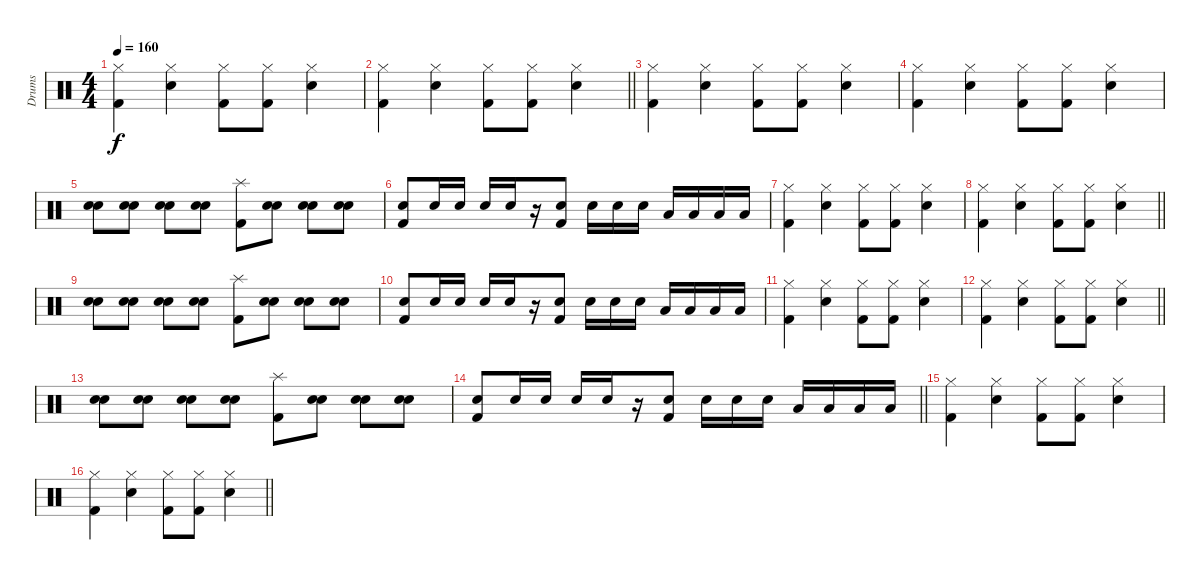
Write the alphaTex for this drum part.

\track ("Drums" "Drums") {instrument percussion}
\staff {score}
\articulation defaults
\ts (4 4)
\tempo 160
\clef neutral
\ks c
("Hi-Hat (closed)" "Kick (hit) 2").4{dy f} ("Hi-Hat (closed)" "Snare (hit) 2").4 ("Hi-Hat (closed)" "Kick (hit) 2").8 ("Hi-Hat (closed)" "Kick (hit) 2").8 ("Hi-Hat (closed)" "Snare (hit) 2").4 |
\barLineRight lightlight
("Hi-Hat (closed)" "Kick (hit) 2").4 ("Hi-Hat (closed)" "Snare (hit) 2").4 ("Hi-Hat (closed)" "Kick (hit) 2").8 ("Hi-Hat (closed)" "Kick (hit) 2").8 ("Hi-Hat (closed)" "Snare (hit) 2").4 |
\section ("" "")
("Hi-Hat (closed)" "Kick (hit) 2").4 ("Hi-Hat (closed)" "Snare (hit) 2").4 ("Hi-Hat (closed)" "Kick (hit) 2").8 ("Hi-Hat (closed)" "Kick (hit) 2").8 ("Hi-Hat (closed)" "Snare (hit) 2").4 |
("Hi-Hat (closed)" "Kick (hit) 2").4 ("Hi-Hat (closed)" "Snare (hit) 2").4 ("Hi-Hat (closed)" "Kick (hit) 2").8 ("Hi-Hat (closed)" "Kick (hit) 2").8 ("Hi-Hat (closed)" "Snare (hit) 2").4 |
("Electric Snare (hit)" "Electric Snare (hit)").8 ("Electric Snare (hit)" "Electric Snare (hit)").8 ("Electric Snare (hit)" "Electric Snare (hit)").8 ("Electric Snare (hit)" "Electric Snare (hit)").8 ("Splash (hit)" "Kick (hit) 2").8 ("Electric Snare (hit)" "Electric Snare (hit)").8 ("Electric Snare (hit)" "Electric Snare (hit)").8 ("Electric Snare (hit)" "Electric Snare (hit)").8 |
("Electric Snare (hit)" "Kick (hit) 2").8 "Electric Snare (hit)".16 "Electric Snare (hit)".16 "Electric Snare (hit)".16 "Electric Snare (hit)".16 r.16 ("Electric Snare (hit)" "Kick (hit) 2").8 "Electric Snare (hit)".16 "Electric Snare (hit)".16 "Electric Snare (hit)".16 "Low Tom (hit)".16 "Low Tom (hit)".16 "Low Tom (hit)".16 "Low Tom (hit)".16 |
("Hi-Hat (closed)" "Kick (hit) 2").4 ("Hi-Hat (closed)" "Snare (hit) 2").4 ("Hi-Hat (closed)" "Kick (hit) 2").8 ("Hi-Hat (closed)" "Kick (hit) 2").8 ("Hi-Hat (closed)" "Snare (hit) 2").4 |
\barLineRight lightlight
("Hi-Hat (closed)" "Kick (hit) 2").4 ("Hi-Hat (closed)" "Snare (hit) 2").4 ("Hi-Hat (closed)" "Kick (hit) 2").8 ("Hi-Hat (closed)" "Kick (hit) 2").8 ("Hi-Hat (closed)" "Snare (hit) 2").4 |
("Electric Snare (hit)" "Electric Snare (hit)").8 ("Electric Snare (hit)" "Electric Snare (hit)").8 ("Electric Snare (hit)" "Electric Snare (hit)").8 ("Electric Snare (hit)" "Electric Snare (hit)").8 ("Splash (hit)" "Kick (hit) 2").8 ("Electric Snare (hit)" "Electric Snare (hit)").8 ("Electric Snare (hit)" "Electric Snare (hit)").8 ("Electric Snare (hit)" "Electric Snare (hit)").8 |
("Electric Snare (hit)" "Kick (hit) 2").8 "Electric Snare (hit)".16 "Electric Snare (hit)".16 "Electric Snare (hit)".16 "Electric Snare (hit)".16 r.16 ("Electric Snare (hit)" "Kick (hit) 2").8 "Electric Snare (hit)".16 "Electric Snare (hit)".16 "Electric Snare (hit)".16 "Low Tom (hit)".16 "Low Tom (hit)".16 "Low Tom (hit)".16 "Low Tom (hit)".16 |
("Hi-Hat (closed)" "Kick (hit) 2").4 ("Hi-Hat (closed)" "Snare (hit) 2").4 ("Hi-Hat (closed)" "Kick (hit) 2").8 ("Hi-Hat (closed)" "Kick (hit) 2").8 ("Hi-Hat (closed)" "Snare (hit) 2").4 |
\barLineRight lightlight
("Hi-Hat (closed)" "Kick (hit) 2").4 ("Hi-Hat (closed)" "Snare (hit) 2").4 ("Hi-Hat (closed)" "Kick (hit) 2").8 ("Hi-Hat (closed)" "Kick (hit) 2").8 ("Hi-Hat (closed)" "Snare (hit) 2").4 |
("Electric Snare (hit)" "Electric Snare (hit)").8 ("Electric Snare (hit)" "Electric Snare (hit)").8 ("Electric Snare (hit)" "Electric Snare (hit)").8 ("Electric Snare (hit)" "Electric Snare (hit)").8 ("Splash (hit)" "Kick (hit) 2").8 ("Electric Snare (hit)" "Electric Snare (hit)").8 ("Electric Snare (hit)" "Electric Snare (hit)").8 ("Electric Snare (hit)" "Electric Snare (hit)").8 |
\barLineRight lightlight
("Electric Snare (hit)" "Kick (hit) 2").8 "Electric Snare (hit)".16 "Electric Snare (hit)".16 "Electric Snare (hit)".16 "Electric Snare (hit)".16 r.16 ("Electric Snare (hit)" "Kick (hit) 2").8 "Electric Snare (hit)".16 "Electric Snare (hit)".16 "Electric Snare (hit)".16 "Low Tom (hit)".16 "Low Tom (hit)".16 "Low Tom (hit)".16 "Low Tom (hit)".16 |
\section ("" "")
("Hi-Hat (closed)" "Kick (hit) 2").4 ("Hi-Hat (closed)" "Snare (hit) 2").4 ("Hi-Hat (closed)" "Kick (hit) 2").8 ("Hi-Hat (closed)" "Kick (hit) 2").8 ("Hi-Hat (closed)" "Snare (hit) 2").4 |
\barLineRight lightlight
("Hi-Hat (closed)" "Kick (hit) 2").4 ("Hi-Hat (closed)" "Snare (hit) 2").4 ("Hi-Hat (closed)" "Kick (hit) 2").8 ("Hi-Hat (closed)" "Kick (hit) 2").8 ("Hi-Hat (closed)" "Snare (hit) 2").4
